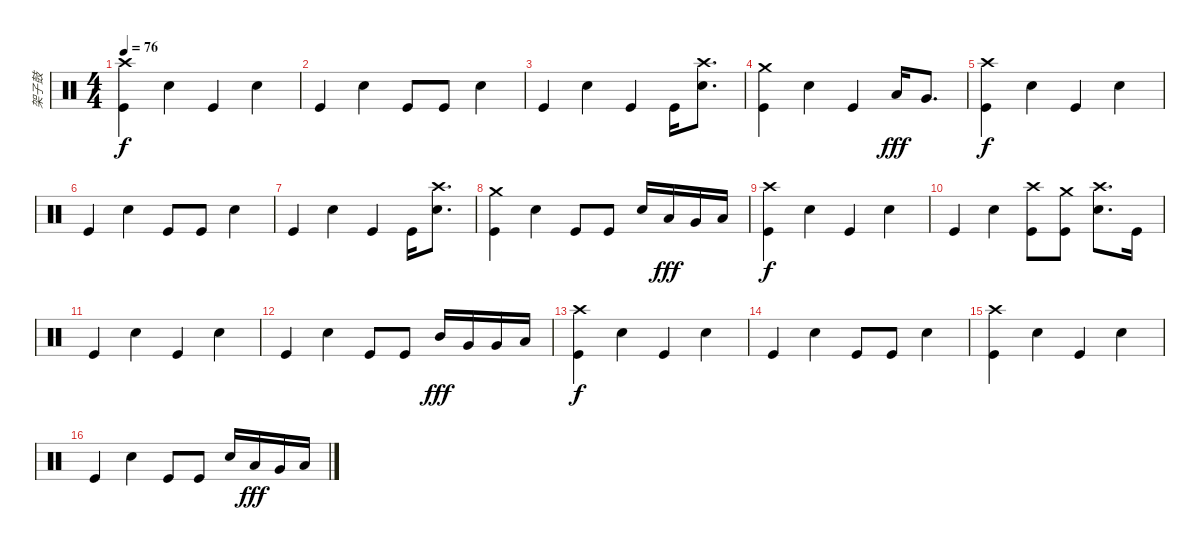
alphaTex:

\track ("架子鼓" "架子鼓") {instrument percussion}
\staff {score}
\articulation defaults
\ts (4 4)
\tempo 76
\clef neutral
\ks c
("Kick (hit)" "Crash high (hit)").4{dy f} "Electric Snare (hit)".4 "Kick (hit)".4 "Electric Snare (hit)".4 |
"Kick (hit)".4 "Electric Snare (hit)".4 "Kick (hit)".8 "Kick (hit)".8 "Electric Snare (hit)".4 |
"Kick (hit)".4 "Electric Snare (hit)".4 "Kick (hit)".4 "Kick (hit)".16 ("Electric Snare (hit)" "Crash high (hit)").8{d} |
("Kick (hit)" "Crash medium (hit)").4 "Electric Snare (hit)".4 "Kick (hit)".4 "Low Floor Tom (hit)".16{dy fff} "Very Low Tom (hit)".8{d} |
("Kick (hit)" "Crash high (hit)").4{dy f} "Electric Snare (hit)".4 "Kick (hit)".4 "Electric Snare (hit)".4 |
"Kick (hit)".4 "Electric Snare (hit)".4 "Kick (hit)".8 "Kick (hit)".8 "Electric Snare (hit)".4 |
"Kick (hit)".4 "Electric Snare (hit)".4 "Kick (hit)".4 "Kick (hit)".16 ("Electric Snare (hit)" "Crash high (hit)").8{d} |
("Kick (hit)" "Crash medium (hit)").4 "Electric Snare (hit)".4 "Kick (hit)".8 "Kick (hit)".8 "Electric Snare (hit)".16 "Low Tom (hit)".16{dy fff} "Very Low Tom (hit)".16 "Low Floor Tom (hit)".16 |
("Kick (hit)" "Crash high (hit)").4{dy f} "Electric Snare (hit)".4 "Kick (hit)".4 "Electric Snare (hit)".4 |
"Kick (hit)".4 "Electric Snare (hit)".4 ("Kick (hit)" "Crash high (hit)").8 ("Kick (hit)" "Crash medium (hit)").8 ("Electric Snare (hit)" "Crash high (hit)").8{d} "Kick (hit)".16 |
"Kick (hit)".4 "Electric Snare (hit)".4 "Kick (hit)".4 "Electric Snare (hit)".4 |
"Kick (hit)".4 "Electric Snare (hit)".4 "Kick (hit)".8 "Kick (hit)".8 "Mid Tom (hit)".16{dy fff} "Very Low Tom (hit)".16 "Very Low Tom (hit)".16 "Low Floor Tom (hit)".16 |
("Kick (hit)" "Crash high (hit)").4{dy f} "Electric Snare (hit)".4 "Kick (hit)".4 "Electric Snare (hit)".4 |
"Kick (hit)".4 "Electric Snare (hit)".4 "Kick (hit)".8 "Kick (hit)".8 "Electric Snare (hit)".4 |
("Kick (hit)" "Crash high (hit)").4 "Electric Snare (hit)".4 "Kick (hit)".4 "Electric Snare (hit)".4 |
"Kick (hit)".4 "Electric Snare (hit)".4 "Kick (hit)".8 "Kick (hit)".8 "Electric Snare (hit)".16 "Low Tom (hit)".16{dy fff} "Very Low Tom (hit)".16 "Low Floor Tom (hit)".16
